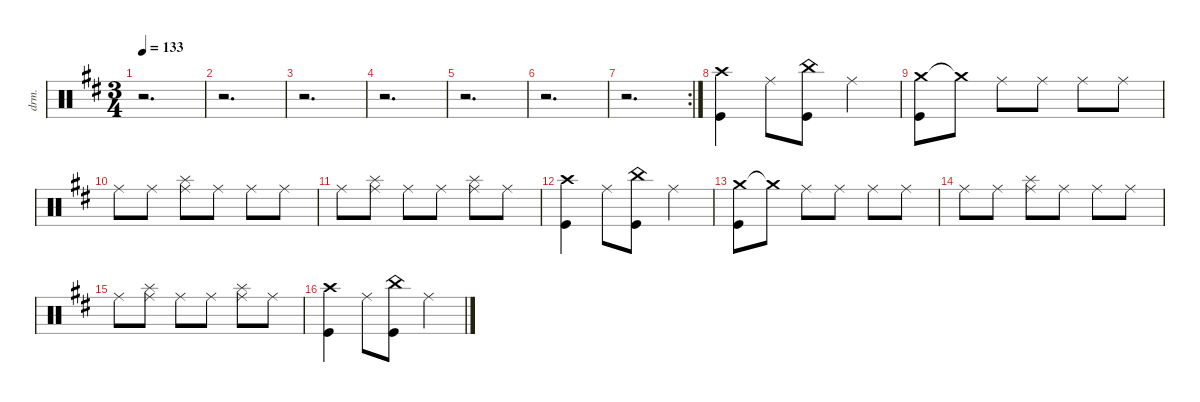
\defaultSystemsLayout 4
\hideDynamics
\bracketExtendMode nobrackets
\otherSystemsTrackNameOrientation horizontal
\track ("Drums" "drm.") {defaultSystemsLayout 4 instrument percussion}
\staff {score}
\articulation defaults
\ts (3 4)
\tempo 133
\clef neutral
\ks bminor
r.2{d dy fff beam Down} |
r.2{d beam Down} |
r.2{d beam Down} |
r.2{d beam Down} |
r.2{d beam Down} |
r.2{d beam Down} |
\rc 2
r.2{d beam Down} |
("Crash high (hit)"{acc forcenatural} "Kick (hit)"{acc forcenatural}).4{dy p beam Down} "Ride (middle)"{acc forcenatural}.8{dy f beam Down} ("China (hit)"{acc forcenatural} "Kick (hit)"{acc forcenatural}).8{dy mf beam Down} "Ride (middle)"{acc forcenatural}.4{dy f beam Down} |
("Crash medium (hit)"{acc forcenatural} "Kick (hit)"{acc forcenatural}).8{dy mp beam Down} "Crash medium (hit)"{t acc forcenatural}.8{dy f beam Down} "Ride (middle)"{acc forcenatural}.8{beam Down} "Ride (middle)"{acc forcenatural}.8{dy pp beam Down} "Ride (middle)"{acc forcenatural}.8{dy p beam Down} "Ride (middle)"{acc forcenatural}.8{dy f beam Down} |
"Ride (middle)"{acc forcenatural}.8{dy p beam Down} "Ride (middle)"{acc forcenatural}.8{dy pp beam Down} ("Ride (middle)"{acc forcenatural} "Splash (hit)"{acc forcenatural}).8{dy f beam Down} "Ride (middle)"{acc forcenatural}.8{dy p beam Down} "Ride (middle)"{acc forcenatural}.8{dy mp beam Down} "Ride (middle)"{acc forcenatural}.8{dy mf beam Down} |
"Ride (middle)"{acc forcenatural}.8{dy mp beam Down} ("Ride (middle)"{acc forcenatural} "Splash (hit)"{acc forcenatural}).8{dy f beam Down} "Ride (middle)"{acc forcenatural}.8{dy mp beam Down} "Ride (middle)"{acc forcenatural}.8{dy p beam Down} ("Ride (middle)"{acc forcenatural} "Splash (hit)"{acc forcenatural}).8{dy f beam Down} "Ride (middle)"{acc forcenatural}.8{beam Down} |
("Crash high (hit)"{acc forcenatural} "Kick (hit)"{acc forcenatural}).4{dy p beam Down} "Ride (middle)"{acc forcenatural}.8{dy f beam Down} ("China (hit)"{acc forcenatural} "Kick (hit)"{acc forcenatural}).8{dy mf beam Down} "Ride (middle)"{acc forcenatural}.4{dy f beam Down} |
("Crash medium (hit)"{acc forcenatural} "Kick (hit)"{acc forcenatural}).8{dy mp beam Down} "Crash medium (hit)"{t acc forcenatural}.8{dy f beam Down} "Ride (middle)"{acc forcenatural}.8{beam Down} "Ride (middle)"{acc forcenatural}.8{dy pp beam Down} "Ride (middle)"{acc forcenatural}.8{dy p beam Down} "Ride (middle)"{acc forcenatural}.8{dy f beam Down} |
"Ride (middle)"{acc forcenatural}.8{dy p beam Down} "Ride (middle)"{acc forcenatural}.8{dy pp beam Down} ("Ride (middle)"{acc forcenatural} "Splash (hit)"{acc forcenatural}).8{dy f beam Down} "Ride (middle)"{acc forcenatural}.8{dy p beam Down} "Ride (middle)"{acc forcenatural}.8{dy mp beam Down} "Ride (middle)"{acc forcenatural}.8{dy mf beam Down} |
"Ride (middle)"{acc forcenatural}.8{dy mp beam Down} ("Ride (middle)"{acc forcenatural} "Splash (hit)"{acc forcenatural}).8{dy f beam Down} "Ride (middle)"{acc forcenatural}.8{dy mp beam Down} "Ride (middle)"{acc forcenatural}.8{dy p beam Down} ("Ride (middle)"{acc forcenatural} "Splash (hit)"{acc forcenatural}).8{dy f beam Down} "Ride (middle)"{acc forcenatural}.8{beam Down} |
("Crash high (hit)"{acc forcenatural} "Kick (hit)"{acc forcenatural}).4{dy p beam Down} "Ride (middle)"{acc forcenatural}.8{dy f beam Down} ("China (hit)"{acc forcenatural} "Kick (hit)"{acc forcenatural}).8{dy mf beam Down} "Ride (middle)"{acc forcenatural}.4{dy f beam Down}
